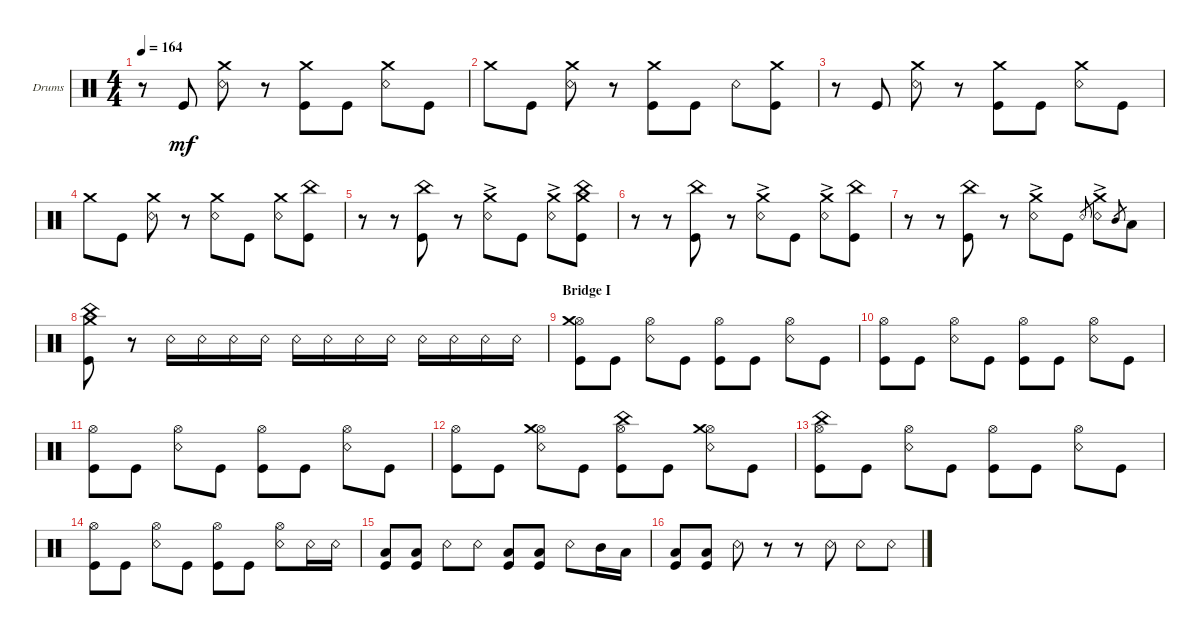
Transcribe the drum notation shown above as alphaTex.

\defaultSystemsLayout 4
\bracketExtendMode groupsimilarinstruments
\firstSystemTrackNameOrientation horizontal
\otherSystemsTrackNameOrientation horizontal
\track ("Drums" "Drums") {instrument percussion}
\staff {score}
\articulation defaults
\ts (4 4)
\tempo 164
\clef neutral
\scale
0.333333
\ks c
r.8{dy mf} "Kick (hit)".8 ("Snare (rim shot)" "Crash medium (hit)").8 r.8 ("Kick (hit)" "Crash medium (hit)").8 "Kick (hit)".8 ("Snare (rim shot)" "Crash medium (hit)").8 "Kick (hit)".8 |
\scale
0.333333 "Crash medium (hit)".8 "Kick (hit)".8 ("Snare (rim shot)" "Crash medium (hit)").8 r.8 ("Kick (hit)" "Crash medium (hit)").8 "Kick (hit)".8 "Snare (rim shot)".8 ("Crash medium (hit)" "Kick (hit)").8 |
\scale
0.333333 r.8 "Kick (hit)".8 ("Snare (rim shot)" "Crash medium (hit)").8 r.8 ("Kick (hit)" "Crash medium (hit)").8 "Kick (hit)".8 ("Snare (rim shot)" "Crash medium (hit)").8 "Kick (hit)".8 |
\scale
0.333333 "Crash medium (hit)".8 "Kick (hit)".8 ("Snare (rim shot)" "Crash medium (hit)").8 r.8 ("Snare (rim shot)" "Crash medium (hit)").8 "Kick (hit)".8 ("Snare (rim shot)" "Crash medium (hit)").8 ("Kick (hit)" "China (hit)").8 |
\scale
0.333333 r.8 r.8 ("Kick (hit)" "China (hit)").8 r.8 ("Snare (rim shot)"{ac} "Crash medium (hit)").8 "Kick (hit)".8 ("Snare (rim shot)"{ac} "Crash medium (hit)").8 ("Kick (hit)" "China (hit)" "Crash medium (hit)").8 |
\scale
0.333333 r.8 r.8 ("Kick (hit)" "China (hit)").8 r.8 ("Snare (rim shot)"{ac} "Crash medium (hit)").8 "Kick (hit)".8 ("Snare (rim shot)"{ac} "Crash medium (hit)").8 ("Kick (hit)" "China (hit)").8 |
\scale
0.333333 r.8 r.8 ("Kick (hit)" "China (hit)").8 r.8 ("Snare (rim shot)"{ac} "Crash medium (hit)").8 "Kick (hit)".8 "Snare (rim shot)".8{gr} ("Snare (rim shot)"{ac} "Crash medium (hit)").8 "Mid Tom (hit)".8{gr} "Low Tom (hit)".8 |
\scale
0.333333 ("Kick (hit)" "Crash medium (hit)" "China (hit)").8 r.8 "Snare (rim shot)".16 "Snare (rim shot)".16 "Snare (rim shot)".16 "Snare (rim shot)".16 "Snare (rim shot)".16 "Snare (rim shot)".16 "Snare (rim shot)".16 "Snare (rim shot)".16 "Snare (rim shot)".16 "Snare (rim shot)".16 "Snare (rim shot)".16 "Snare (rim shot)".16 |
\section ("" "Bridge I")
\scale
0.333333 ("Hi-Hat (open)" "Kick (hit)" "Crash medium (hit)").8 "Kick (hit)".8 ("Snare (rim shot)" "Hi-Hat (open)").8 "Kick (hit)".8 ("Kick (hit)" "Hi-Hat (open)").8 "Kick (hit)".8 ("Snare (rim shot)" "Hi-Hat (open)").8 "Kick (hit)".8 |
\scale
0.333333 ("Hi-Hat (open)" "Kick (hit)").8 "Kick (hit)".8 ("Snare (rim shot)" "Hi-Hat (open)").8 "Kick (hit)".8 ("Kick (hit)" "Hi-Hat (open)").8 "Kick (hit)".8 ("Snare (rim shot)" "Hi-Hat (open)").8 "Kick (hit)".8 |
\scale
0.333333 ("Hi-Hat (open)" "Kick (hit)").8 "Kick (hit)".8 ("Snare (rim shot)" "Hi-Hat (open)").8 "Kick (hit)".8 ("Kick (hit)" "Hi-Hat (open)").8 "Kick (hit)".8 ("Snare (rim shot)" "Hi-Hat (open)").8 "Kick (hit)".8 |
\scale
0.333333 ("Hi-Hat (open)" "Kick (hit)").8 "Kick (hit)".8 ("Snare (rim shot)" "Hi-Hat (open)" "Crash medium (hit)").8 "Kick (hit)".8 ("Kick (hit)" "Hi-Hat (open)" "China (hit)").8 "Kick (hit)".8 ("Snare (rim shot)" "Hi-Hat (open)" "Crash medium (hit)").8 "Kick (hit)".8 |
\scale
0.333333 ("Hi-Hat (open)" "Kick (hit)" "China (hit)").8 "Kick (hit)".8 ("Snare (rim shot)" "Hi-Hat (open)").8 "Kick (hit)".8 ("Kick (hit)" "Hi-Hat (open)").8 "Kick (hit)".8 ("Snare (rim shot)" "Hi-Hat (open)").8 "Kick (hit)".8 |
\scale
0.333333 ("Hi-Hat (open)" "Kick (hit)").8 "Kick (hit)".8 ("Snare (rim shot)" "Hi-Hat (open)").8 "Kick (hit)".8 ("Kick (hit)" "Hi-Hat (open)").8 "Kick (hit)".8 ("Snare (rim shot)" "Hi-Hat (open)").8 "Snare (rim shot)".16 "Snare (rim shot)".16 |
\scale
0.333333 ("Kick (hit)" "Low Tom (hit)").8 ("Kick (hit)" "Low Tom (hit)").8 "Snare (rim shot)".8 "Snare (rim shot)".8 ("Kick (hit)" "Low Tom (hit)").8 ("Kick (hit)" "Low Tom (hit)").8 "Snare (rim shot)".8 "Mid Tom (hit)".16 "Low Tom (hit)".16 |
\scale
0.333333 ("Kick (hit)" "Low Tom (hit)").8 ("Kick (hit)" "Low Tom (hit)").8 "Snare (rim shot)".8 r.8 r.8 "Snare (rim shot)".8 "Snare (rim shot)".8 "Snare (rim shot)".8
